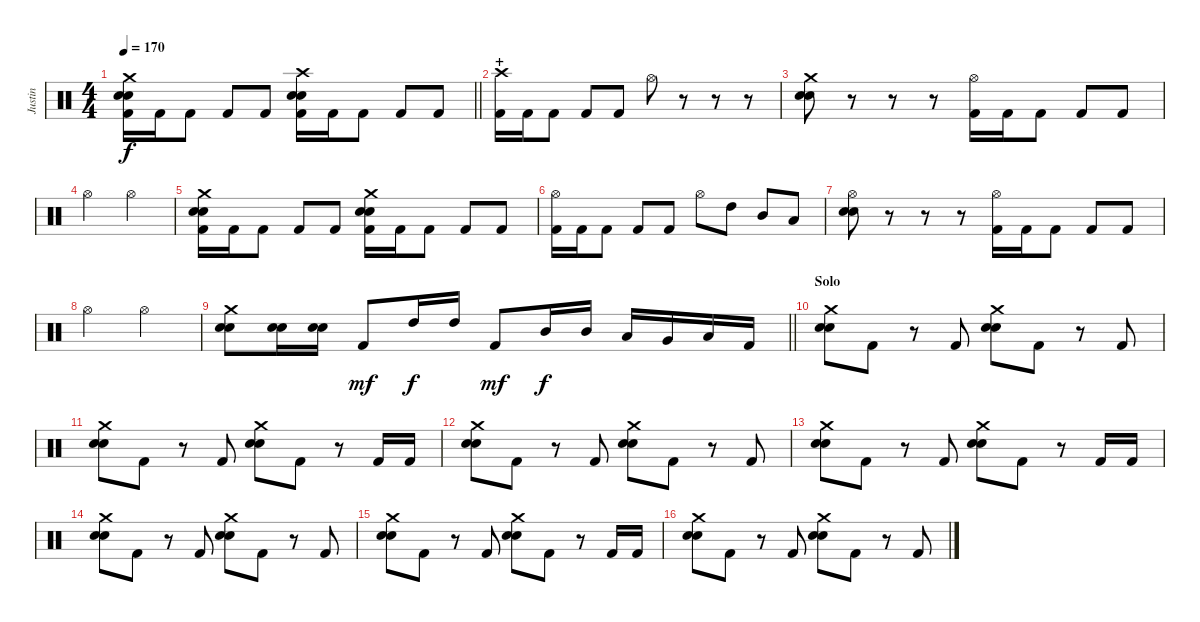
\track ("Justin" "Justin") {instrument percussion}
\staff {score}
\articulation defaults
\ts (4 4)
\tempo 170
\clef neutral
\barLineRight lightlight
\ks c
("Crash medium (hit)" "Electric Snare (hit)" "Snare (hit) 2" "Kick (hit) 2").16{dy f} "Kick (hit) 2".16 "Kick (hit) 2".8 "Kick (hit) 2".8 "Kick (hit) 2".8 ("Crash high (hit)" "Electric Snare (hit)" "Snare (hit) 2" "Kick (hit) 2").16 "Kick (hit) 2".16 "Kick (hit) 2".8 "Kick (hit) 2".8 "Kick (hit) 2".8 |
\section ("" "+")
("Crash high (hit)" "Kick (hit) 2").16 "Kick (hit) 2".16 "Kick (hit) 2".8 "Kick (hit) 2".8 "Kick (hit) 2".8 "Hi-Hat (open)".8 r.8 r.8 r.8 |
("Crash medium (hit)" "Electric Snare (hit)" "Snare (hit) 2").8 r.8 r.8 r.8 ("Hi-Hat (open)" "Kick (hit) 2").16 "Kick (hit) 2".16 "Kick (hit) 2".8 "Kick (hit) 2".8 "Kick (hit) 2".8 |
"Hi-Hat (open)".2 "Hi-Hat (open)".2 |
("Crash medium (hit)" "Electric Snare (hit)" "Snare (hit) 2" "Kick (hit) 2").16 "Kick (hit) 2".16 "Kick (hit) 2".8 "Kick (hit) 2".8 "Kick (hit) 2".8 ("Crash medium (hit)" "Electric Snare (hit)" "Snare (hit) 2" "Kick (hit) 2").16 "Kick (hit) 2".16 "Kick (hit) 2".8 "Kick (hit) 2".8 "Kick (hit) 2".8 |
("Hi-Hat (open)" "Kick (hit) 2").16 "Kick (hit) 2".16 "Kick (hit) 2".8 "Kick (hit) 2".8 "Kick (hit) 2".8 "Hi-Hat (open)".8 "High Tom (hit)".8 "Mid Tom (hit)".8 "Low Tom (hit)".8 |
("Hi-Hat (open)" "Electric Snare (hit)" "Snare (hit) 2").8 r.8 r.8 r.8 ("Hi-Hat (open)" "Kick (hit) 2").16 "Kick (hit) 2".16 "Kick (hit) 2".8 "Kick (hit) 2".8 "Kick (hit) 2".8 |
"Hi-Hat (open)".2 "Hi-Hat (open)".2 |
\barLineRight lightlight
("Crash medium (hit)" "Electric Snare (hit)" "Snare (hit) 2").8 ("Electric Snare (hit)" "Snare (hit) 2").16 ("Electric Snare (hit)" "Snare (hit) 2").16 "Kick (hit) 2".8{dy mf} "High Tom (hit)".16{dy f} "High Tom (hit)".16 "Kick (hit) 2".8{dy mf} "Mid Tom (hit)".16{dy f} "Mid Tom (hit)".16 "Low Tom (hit)".16 "Very Low Tom (hit)".16 "Low Floor Tom (hit)".16 "Kick (hit) 2".16 |
\section ("" "Solo")
("Crash medium (hit)" "Electric Snare (hit)" "Snare (hit) 2").8 "Kick (hit) 2".8 r.8 "Kick (hit) 2".8 ("Crash medium (hit)" "Electric Snare (hit)" "Snare (hit) 2").8 "Kick (hit) 2".8 r.8 "Kick (hit) 2".8 |
("Crash medium (hit)" "Electric Snare (hit)" "Snare (hit) 2").8 "Kick (hit) 2".8 r.8 "Kick (hit) 2".8 ("Crash medium (hit)" "Electric Snare (hit)" "Snare (hit) 2").8 "Kick (hit) 2".8 r.8 "Kick (hit) 2".16 "Kick (hit) 2".16 |
("Crash medium (hit)" "Electric Snare (hit)" "Snare (hit) 2").8 "Kick (hit) 2".8 r.8 "Kick (hit) 2".8 ("Crash medium (hit)" "Electric Snare (hit)" "Snare (hit) 2").8 "Kick (hit) 2".8 r.8 "Kick (hit) 2".8 |
("Crash medium (hit)" "Electric Snare (hit)" "Snare (hit) 2").8 "Kick (hit) 2".8 r.8 "Kick (hit) 2".8 ("Crash medium (hit)" "Electric Snare (hit)" "Snare (hit) 2").8 "Kick (hit) 2".8 r.8 "Kick (hit) 2".16 "Kick (hit) 2".16 |
("Crash medium (hit)" "Electric Snare (hit)" "Snare (hit) 2").8 "Kick (hit) 2".8 r.8 "Kick (hit) 2".8 ("Crash medium (hit)" "Electric Snare (hit)" "Snare (hit) 2").8 "Kick (hit) 2".8 r.8 "Kick (hit) 2".8 |
("Crash medium (hit)" "Electric Snare (hit)" "Snare (hit) 2").8 "Kick (hit) 2".8 r.8 "Kick (hit) 2".8 ("Crash medium (hit)" "Electric Snare (hit)" "Snare (hit) 2").8 "Kick (hit) 2".8 r.8 "Kick (hit) 2".16 "Kick (hit) 2".16 |
("Crash medium (hit)" "Electric Snare (hit)" "Snare (hit) 2").8 "Kick (hit) 2".8 r.8 "Kick (hit) 2".8 ("Crash medium (hit)" "Electric Snare (hit)" "Snare (hit) 2").8 "Kick (hit) 2".8 r.8 "Kick (hit) 2".8
